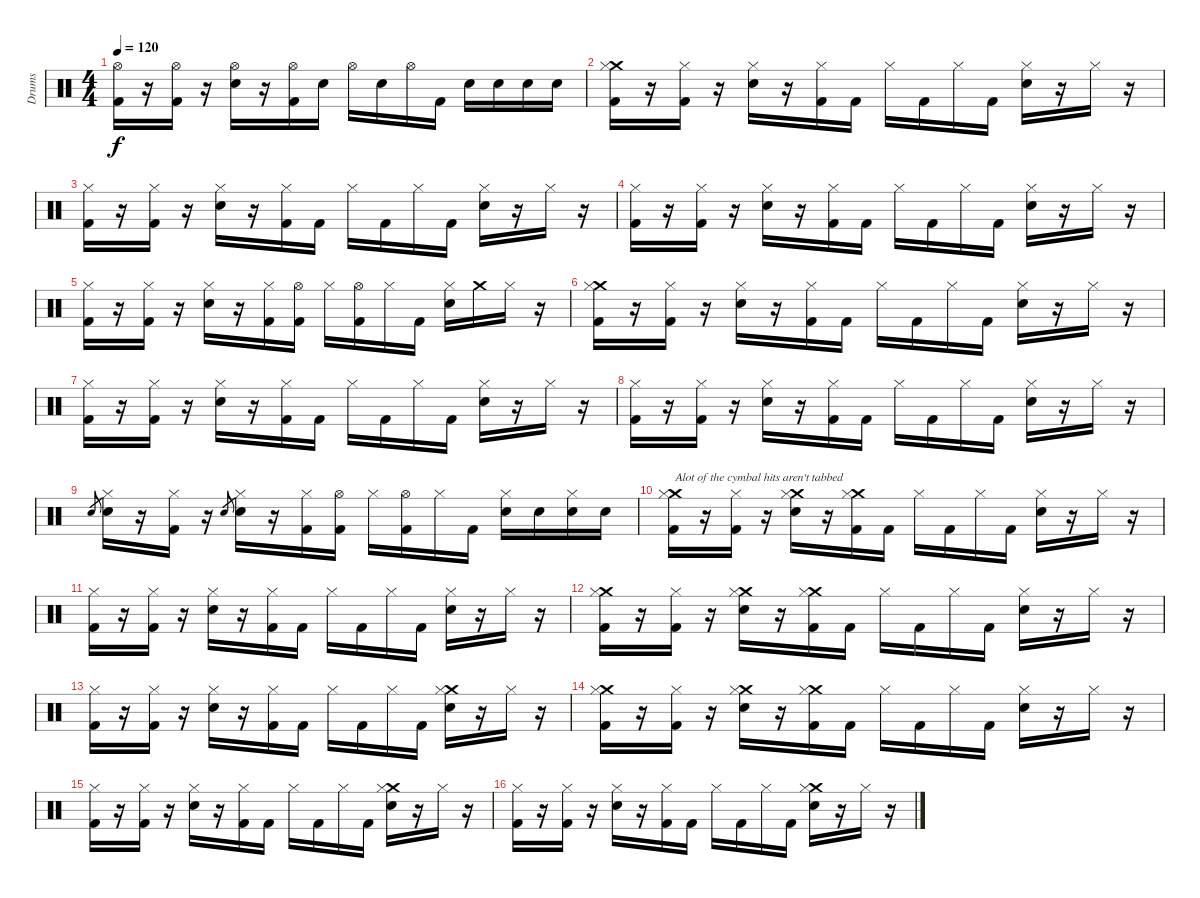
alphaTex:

\track ("Drums" "Drums") {instrument percussion}
\staff {score}
\articulation defaults
\ts (4 4)
\tempo 120
\clef neutral
\ks c
("Hi-Hat (open)" "Kick (hit) 2").16{dy f} r.16 ("Hi-Hat (open)" "Kick (hit) 2").16 r.16 ("Hi-Hat (open)" "Snare (hit) 2").16 r.16 ("Hi-Hat (open)" "Kick (hit) 2").16 "Snare (hit) 2".16 "Hi-Hat (open)".16 "Snare (hit) 2".16 "Hi-Hat (open)".16 "Kick (hit) 2".16 "Snare (hit) 2".16 "Snare (hit) 2".16 "Snare (hit) 2".16 "Snare (hit) 2".16 |
("Crash medium (hit)" "Hi-Hat (closed)" "Kick (hit) 2").16 r.16 ("Hi-Hat (closed)" "Kick (hit) 2").16 r.16 ("Hi-Hat (closed)" "Snare (hit) 2").16 r.16 ("Hi-Hat (closed)" "Kick (hit) 2").16 "Kick (hit) 2".16 "Hi-Hat (closed)".16 "Kick (hit) 2".16 "Hi-Hat (closed)".16 "Kick (hit) 2".16 ("Hi-Hat (closed)" "Snare (hit) 2").16 r.16 "Hi-Hat (closed)".16 r.16 |
("Hi-Hat (closed)" "Kick (hit) 2").16 r.16 ("Hi-Hat (closed)" "Kick (hit) 2").16 r.16 ("Hi-Hat (closed)" "Snare (hit) 2").16 r.16 ("Hi-Hat (closed)" "Kick (hit) 2").16 "Kick (hit) 2".16 "Hi-Hat (closed)".16 "Kick (hit) 2".16 "Hi-Hat (closed)".16 "Kick (hit) 2".16 ("Hi-Hat (closed)" "Snare (hit) 2").16 r.16 "Hi-Hat (closed)".16 r.16 |
("Hi-Hat (closed)" "Kick (hit) 2").16 r.16 ("Hi-Hat (closed)" "Kick (hit) 2").16 r.16 ("Hi-Hat (closed)" "Snare (hit) 2").16 r.16 ("Hi-Hat (closed)" "Kick (hit) 2").16 "Kick (hit) 2".16 "Hi-Hat (closed)".16 "Kick (hit) 2".16 "Hi-Hat (closed)".16 "Kick (hit) 2".16 ("Hi-Hat (closed)" "Snare (hit) 2").16 r.16 "Hi-Hat (closed)".16 r.16 |
("Hi-Hat (closed)" "Kick (hit) 2").16 r.16 ("Hi-Hat (closed)" "Kick (hit) 2").16 r.16 ("Hi-Hat (closed)" "Snare (hit) 2").16 r.16 ("Hi-Hat (closed)" "Kick (hit) 2").16 ("Hi-Hat (open)" "Kick (hit) 2").16 "Hi-Hat (closed)".16 ("Hi-Hat (open)" "Kick (hit) 2").16 "Hi-Hat (closed)".16 "Kick (hit) 2".16 ("Hi-Hat (closed)" "Snare (hit) 2").16 "Crash medium (hit)".16 "Hi-Hat (closed)".16 r.16 |
("Crash medium (hit)" "Hi-Hat (closed)" "Kick (hit) 2").16 r.16 ("Hi-Hat (closed)" "Kick (hit) 2").16 r.16 ("Hi-Hat (closed)" "Snare (hit) 2").16 r.16 ("Hi-Hat (closed)" "Kick (hit) 2").16 "Kick (hit) 2".16 "Hi-Hat (closed)".16 "Kick (hit) 2".16 "Hi-Hat (closed)".16 "Kick (hit) 2".16 ("Hi-Hat (closed)" "Snare (hit) 2").16 r.16 "Hi-Hat (closed)".16 r.16 |
("Hi-Hat (closed)" "Kick (hit) 2").16 r.16 ("Hi-Hat (closed)" "Kick (hit) 2").16 r.16 ("Hi-Hat (closed)" "Snare (hit) 2").16 r.16 ("Hi-Hat (closed)" "Kick (hit) 2").16 "Kick (hit) 2".16 "Hi-Hat (closed)".16 "Kick (hit) 2".16 "Hi-Hat (closed)".16 "Kick (hit) 2".16 ("Hi-Hat (closed)" "Snare (hit) 2").16 r.16 "Hi-Hat (closed)".16 r.16 |
("Hi-Hat (closed)" "Kick (hit) 2").16 r.16 ("Hi-Hat (closed)" "Kick (hit) 2").16 r.16 ("Hi-Hat (closed)" "Snare (hit) 2").16 r.16 ("Hi-Hat (closed)" "Kick (hit) 2").16 "Kick (hit) 2".16 "Hi-Hat (closed)".16 "Kick (hit) 2".16 "Hi-Hat (closed)".16 "Kick (hit) 2".16 ("Hi-Hat (closed)" "Snare (hit) 2").16 r.16 "Hi-Hat (closed)".16 r.16 |
"Snare (hit) 2".8{gr} ("Hi-Hat (closed)" "Snare (hit) 2").16 r.16 ("Hi-Hat (closed)" "Kick (hit) 2").16 r.16 "Snare (hit) 2".8{gr} ("Hi-Hat (closed)" "Snare (hit) 2").16 r.16 ("Hi-Hat (closed)" "Kick (hit) 2").16 ("Hi-Hat (open)" "Kick (hit) 2").16 "Hi-Hat (closed)".16 ("Hi-Hat (open)" "Kick (hit) 2").16 "Hi-Hat (closed)".16 "Kick (hit) 2".16 ("Hi-Hat (closed)" "Snare (hit) 2").16 "Snare (hit) 2".16 ("Hi-Hat (closed)" "Snare (hit) 2").16 "Snare (hit) 2".16 |
("Crash medium (hit)" "Hi-Hat (closed)" "Kick (hit) 2").16{txt "Alot of the cymbal hits aren't tabbed"} r.16 ("Hi-Hat (closed)" "Kick (hit) 2").16 r.16 ("Crash medium (hit)" "Hi-Hat (closed)" "Snare (hit) 2").16 r.16 ("Crash medium (hit)" "Hi-Hat (closed)" "Kick (hit) 2").16 "Kick (hit) 2".16 "Hi-Hat (closed)".16 "Kick (hit) 2".16 "Hi-Hat (closed)".16 "Kick (hit) 2".16 ("Hi-Hat (closed)" "Snare (hit) 2").16 r.16 "Hi-Hat (closed)".16 r.16 |
("Hi-Hat (closed)" "Kick (hit) 2").16 r.16 ("Hi-Hat (closed)" "Kick (hit) 2").16 r.16 ("Hi-Hat (closed)" "Snare (hit) 2").16 r.16 ("Hi-Hat (closed)" "Kick (hit) 2").16 "Kick (hit) 2".16 "Hi-Hat (closed)".16 "Kick (hit) 2".16 "Hi-Hat (closed)".16 "Kick (hit) 2".16 ("Hi-Hat (closed)" "Snare (hit) 2").16 r.16 "Hi-Hat (closed)".16 r.16 |
("Crash medium (hit)" "Hi-Hat (closed)" "Kick (hit) 2").16 r.16 ("Hi-Hat (closed)" "Kick (hit) 2").16 r.16 ("Crash medium (hit)" "Hi-Hat (closed)" "Snare (hit) 2").16 r.16 ("Crash medium (hit)" "Hi-Hat (closed)" "Kick (hit) 2").16 "Kick (hit) 2".16 "Hi-Hat (closed)".16 "Kick (hit) 2".16 "Hi-Hat (closed)".16 "Kick (hit) 2".16 ("Hi-Hat (closed)" "Snare (hit) 2").16 r.16 "Hi-Hat (closed)".16 r.16 |
("Hi-Hat (closed)" "Kick (hit) 2").16 r.16 ("Hi-Hat (closed)" "Kick (hit) 2").16 r.16 ("Hi-Hat (closed)" "Snare (hit) 2").16 r.16 ("Hi-Hat (closed)" "Kick (hit) 2").16 "Kick (hit) 2".16 "Hi-Hat (closed)".16 "Kick (hit) 2".16 "Hi-Hat (closed)".16 "Kick (hit) 2".16 ("Crash medium (hit)" "Hi-Hat (closed)" "Snare (hit) 2").16 r.16 "Hi-Hat (closed)".16 r.16 |
("Crash medium (hit)" "Hi-Hat (closed)" "Kick (hit) 2").16 r.16 ("Hi-Hat (closed)" "Kick (hit) 2").16 r.16 ("Crash medium (hit)" "Hi-Hat (closed)" "Snare (hit) 2").16 r.16 ("Crash medium (hit)" "Hi-Hat (closed)" "Kick (hit) 2").16 "Kick (hit) 2".16 "Hi-Hat (closed)".16 "Kick (hit) 2".16 "Hi-Hat (closed)".16 "Kick (hit) 2".16 ("Hi-Hat (closed)" "Snare (hit) 2").16 r.16 "Hi-Hat (closed)".16 r.16 |
("Hi-Hat (closed)" "Kick (hit) 2").16 r.16 ("Hi-Hat (closed)" "Kick (hit) 2").16 r.16 ("Hi-Hat (closed)" "Snare (hit) 2").16 r.16 ("Hi-Hat (closed)" "Kick (hit) 2").16 "Kick (hit) 2".16 "Hi-Hat (closed)".16 "Kick (hit) 2".16 "Hi-Hat (closed)".16 "Kick (hit) 2".16 ("Crash medium (hit)" "Hi-Hat (closed)" "Snare (hit) 2").16 r.16 "Hi-Hat (closed)".16 r.16 |
("Hi-Hat (closed)" "Kick (hit) 2").16 r.16 ("Hi-Hat (closed)" "Kick (hit) 2").16 r.16 ("Hi-Hat (closed)" "Snare (hit) 2").16 r.16 ("Hi-Hat (closed)" "Kick (hit) 2").16 "Kick (hit) 2".16 "Hi-Hat (closed)".16 "Kick (hit) 2".16 "Hi-Hat (closed)".16 "Kick (hit) 2".16 ("Crash medium (hit)" "Hi-Hat (closed)" "Snare (hit) 2").16 r.16 "Hi-Hat (closed)".16 r.16
